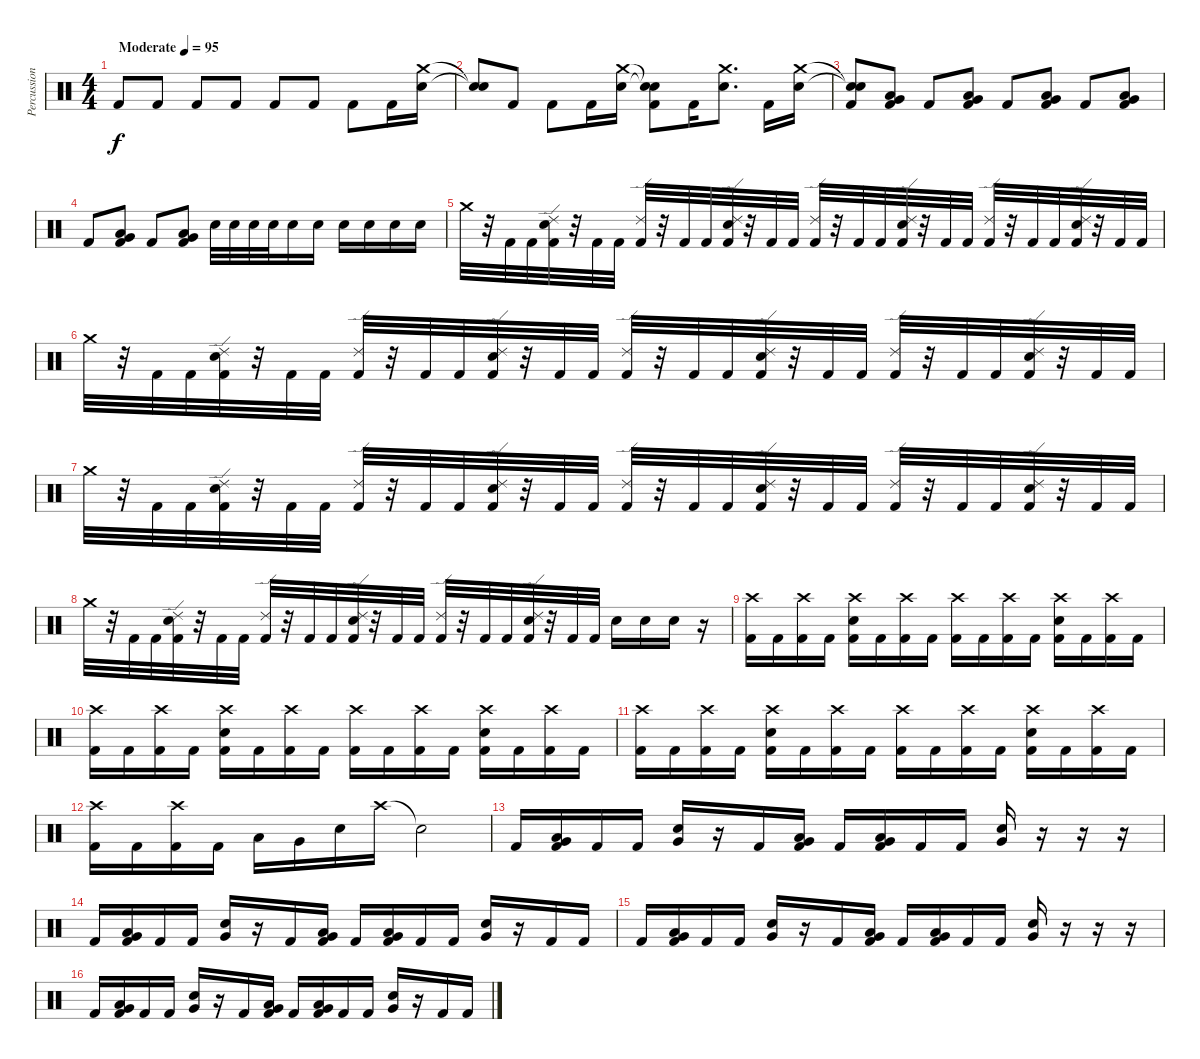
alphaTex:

\track ("Percussion" "Percussion") {instrument percussion}
\staff {score}
\articulation defaults
\ts (4 4)
\tempo (95 "Moderate")
\clef neutral
\ks c "Kick (hit) 2".8{dy f} "Kick (hit) 2".8 "Kick (hit) 2".8 "Kick (hit) 2".8 "Kick (hit) 2".8 "Kick (hit) 2".8 "Kick (hit) 2".8 "Kick (hit) 2".16
("Crash medium (hit)" "Electric Snare (hit)").16 |
("Snare (hit)"{t} "Snare (hit)"{t}).8 "Kick (hit) 2".8 "Kick (hit) 2".8 "Kick (hit) 2".16 ("Crash medium (hit)" "Electric Snare (hit)").16 ("Snare (hit)"{t} "Snare (hit)"{t} "Kick (hit) 2").8 "Kick (hit) 2".16 ("Crash medium (hit)" "Electric Snare (hit)").8{d} "Kick (hit) 2".16 ("Crash medium (hit)" "Electric Snare (hit)").16 |
("Snare (hit)"{t} "Snare (hit)"{t} "Kick (hit) 2").8 ("Low Floor Tom (hit)" "Very Low Tom (hit)" "Kick (hit) 2").8 "Kick (hit) 2".8 ("Low Floor Tom (hit)" "Very Low Tom (hit)" "Kick (hit) 2").8 "Kick (hit) 2".8 ("Low Floor Tom (hit)" "Very Low Tom (hit)" "Kick (hit) 2").8 "Kick (hit) 2".8 ("Low Floor Tom (hit)" "Very Low Tom (hit)" "Kick (hit) 2").8 |
"Kick (hit) 2".8 ("Low Floor Tom (hit)" "Very Low Tom (hit)" "Kick (hit) 2").8 "Kick (hit) 2".8 ("Low Floor Tom (hit)" "Very Low Tom (hit)" "Kick (hit) 2").8 "Electric Snare (hit)".32 "Electric Snare (hit)".32 "Electric Snare (hit)".32 "Electric Snare (hit)".32 "Electric Snare (hit)".16 "Electric Snare (hit)".16 "Electric Snare (hit)".16 "Electric Snare (hit)".16 "Electric Snare (hit)".16 "Electric Snare (hit)".16 |
"Crash medium (hit)".32 r.32 "Kick (hit) 2".32 "Kick (hit) 2".32 ("Ride (edge) 2" "Electric Snare (hit)" "Kick (hit) 2").32 r.32 "Kick (hit) 2".32 "Kick (hit) 2".32 ("Ride (edge) 2" "Kick (hit) 2").32 r.32 "Kick (hit) 2".32 "Kick (hit) 2".32 ("Ride (edge) 2" "Electric Snare (hit)" "Kick (hit) 2").32 r.32 "Kick (hit) 2".32 "Kick (hit) 2".32 ("Ride (edge) 2" "Kick (hit) 2").32 r.32 "Kick (hit) 2".32 "Kick (hit) 2".32 ("Ride (edge) 2" "Electric Snare (hit)" "Kick (hit) 2").32 r.32 "Kick (hit) 2".32 "Kick (hit) 2".32 ("Ride (edge) 2" "Kick (hit) 2").32 r.32 "Kick (hit) 2".32 "Kick (hit) 2".32 ("Ride (edge) 2" "Electric Snare (hit)" "Kick (hit) 2").32 r.32 "Kick (hit) 2".32 "Kick (hit) 2".32 |
"Crash medium (hit)".32 r.32 "Kick (hit) 2".32 "Kick (hit) 2".32 ("Ride (edge) 2" "Electric Snare (hit)" "Kick (hit) 2").32 r.32 "Kick (hit) 2".32 "Kick (hit) 2".32 ("Ride (edge) 2" "Kick (hit) 2").32 r.32 "Kick (hit) 2".32 "Kick (hit) 2".32 ("Ride (edge) 2" "Electric Snare (hit)" "Kick (hit) 2").32 r.32 "Kick (hit) 2".32 "Kick (hit) 2".32 ("Ride (edge) 2" "Kick (hit) 2").32 r.32 "Kick (hit) 2".32 "Kick (hit) 2".32 ("Ride (edge) 2" "Electric Snare (hit)" "Kick (hit) 2").32 r.32 "Kick (hit) 2".32 "Kick (hit) 2".32 ("Ride (edge) 2" "Kick (hit) 2").32 r.32 "Kick (hit) 2".32 "Kick (hit) 2".32 ("Ride (edge) 2" "Electric Snare (hit)" "Kick (hit) 2").32 r.32 "Kick (hit) 2".32 "Kick (hit) 2".32 |
"Crash medium (hit)".32 r.32 "Kick (hit) 2".32 "Kick (hit) 2".32 ("Ride (edge) 2" "Electric Snare (hit)" "Kick (hit) 2").32 r.32 "Kick (hit) 2".32 "Kick (hit) 2".32 ("Ride (edge) 2" "Kick (hit) 2").32 r.32 "Kick (hit) 2".32 "Kick (hit) 2".32 ("Ride (edge) 2" "Electric Snare (hit)" "Kick (hit) 2").32 r.32 "Kick (hit) 2".32 "Kick (hit) 2".32 ("Ride (edge) 2" "Kick (hit) 2").32 r.32 "Kick (hit) 2".32 "Kick (hit) 2".32 ("Ride (edge) 2" "Electric Snare (hit)" "Kick (hit) 2").32 r.32 "Kick (hit) 2".32 "Kick (hit) 2".32 ("Ride (edge) 2" "Kick (hit) 2").32 r.32 "Kick (hit) 2".32 "Kick (hit) 2".32 ("Ride (edge) 2" "Electric Snare (hit)" "Kick (hit) 2").32 r.32 "Kick (hit) 2".32 "Kick (hit) 2".32 |
"Crash medium (hit)".32 r.32 "Kick (hit) 2".32 "Kick (hit) 2".32 ("Ride (edge) 2" "Electric Snare (hit)" "Kick (hit) 2").32 r.32 "Kick (hit) 2".32 "Kick (hit) 2".32 ("Ride (edge) 2" "Kick (hit) 2").32 r.32 "Kick (hit) 2".32 "Kick (hit) 2".32 ("Ride (edge) 2" "Electric Snare (hit)" "Kick (hit) 2").32 r.32 "Kick (hit) 2".32 "Kick (hit) 2".32 ("Ride (edge) 2" "Kick (hit) 2").32 r.32 "Kick (hit) 2".32 "Kick (hit) 2".32 ("Ride (edge) 2" "Electric Snare (hit)" "Kick (hit) 2").32 r.32 "Kick (hit) 2".32 "Kick (hit) 2".32 "Electric Snare (hit)".16 "Electric Snare (hit)".16 "Electric Snare (hit)".16 r.16 |
("Crash high (hit)" "Kick (hit) 2").16 "Kick (hit) 2".16 ("Crash high (hit)" "Kick (hit) 2").16 "Kick (hit) 2".16 ("Crash high (hit)" "Electric Snare (hit)" "Kick (hit) 2").16 "Kick (hit) 2".16 ("Crash high (hit)" "Kick (hit) 2").16 "Kick (hit) 2".16 ("Crash high (hit)" "Kick (hit) 2").16 "Kick (hit) 2".16 ("Crash high (hit)" "Kick (hit) 2").16 "Kick (hit) 2".16 ("Crash high (hit)" "Electric Snare (hit)" "Kick (hit) 2").16 "Kick (hit) 2".16 ("Crash high (hit)" "Kick (hit) 2").16 "Kick (hit) 2".16 |
("Crash high (hit)" "Kick (hit) 2").16 "Kick (hit) 2".16 ("Crash high (hit)" "Kick (hit) 2").16 "Kick (hit) 2".16 ("Crash high (hit)" "Electric Snare (hit)" "Kick (hit) 2").16 "Kick (hit) 2".16 ("Crash high (hit)" "Kick (hit) 2").16 "Kick (hit) 2".16 ("Crash high (hit)" "Kick (hit) 2").16 "Kick (hit) 2".16 ("Crash high (hit)" "Kick (hit) 2").16 "Kick (hit) 2".16 ("Crash high (hit)" "Electric Snare (hit)" "Kick (hit) 2").16 "Kick (hit) 2".16 ("Crash high (hit)" "Kick (hit) 2").16 "Kick (hit) 2".16 |
("Crash high (hit)" "Kick (hit) 2").16 "Kick (hit) 2".16 ("Crash high (hit)" "Kick (hit) 2").16 "Kick (hit) 2".16 ("Crash high (hit)" "Electric Snare (hit)" "Kick (hit) 2").16 "Kick (hit) 2".16 ("Crash high (hit)" "Kick (hit) 2").16 "Kick (hit) 2".16 ("Crash high (hit)" "Kick (hit) 2").16 "Kick (hit) 2".16 ("Crash high (hit)" "Kick (hit) 2").16 "Kick (hit) 2".16 ("Crash high (hit)" "Electric Snare (hit)" "Kick (hit) 2").16 "Kick (hit) 2".16 ("Crash high (hit)" "Kick (hit) 2").16 "Kick (hit) 2".16 |
("Crash high (hit)" "Kick (hit) 2").16 "Kick (hit) 2".16 ("Crash high (hit)" "Kick (hit) 2").16 "Kick (hit) 2".16 "Low Tom (hit)".16 "Very Low Tom (hit)".16 "Electric Snare (hit)".16 "Crash high (hit)".16 "Snare (hit)"{t}.2 |
"Kick (hit) 2".16 ("Low Tom (hit)" "Very Low Tom (hit)" "Kick (hit) 2").16 "Kick (hit) 2".16 "Kick (hit) 2".16 ("Electric Snare (hit)" "Very Low Tom (hit)").16 r.16 "Kick (hit) 2".16 ("Low Tom (hit)" "Very Low Tom (hit)" "Kick (hit) 2").16 "Kick (hit) 2".16 ("Very Low Tom (hit)" "Low Floor Tom (hit)" "Kick (hit) 2").16 "Kick (hit) 2".16 "Kick (hit) 2".16 ("Electric Snare (hit)" "Very Low Tom (hit)").16 r.16 r.16 r.16 |
"Kick (hit) 2".16 ("Low Tom (hit)" "Very Low Tom (hit)" "Kick (hit) 2").16 "Kick (hit) 2".16 "Kick (hit) 2".16 ("Electric Snare (hit)" "Very Low Tom (hit)").16 r.16 "Kick (hit) 2".16 ("Low Tom (hit)" "Very Low Tom (hit)" "Kick (hit) 2").16 "Kick (hit) 2".16 ("Very Low Tom (hit)" "Low Floor Tom (hit)" "Kick (hit) 2").16 "Kick (hit) 2".16 "Kick (hit) 2".16 ("Electric Snare (hit)" "Very Low Tom (hit)").16 r.16 "Kick (hit) 2".16 "Kick (hit) 2".16 |
"Kick (hit) 2".16 ("Low Tom (hit)" "Very Low Tom (hit)" "Kick (hit) 2").16 "Kick (hit) 2".16 "Kick (hit) 2".16 ("Electric Snare (hit)" "Very Low Tom (hit)").16 r.16 "Kick (hit) 2".16 ("Low Tom (hit)" "Very Low Tom (hit)" "Kick (hit) 2").16 "Kick (hit) 2".16 ("Very Low Tom (hit)" "Low Floor Tom (hit)" "Kick (hit) 2").16 "Kick (hit) 2".16 "Kick (hit) 2".16 ("Electric Snare (hit)" "Very Low Tom (hit)").16 r.16 r.16 r.16 |
"Kick (hit) 2".16 ("Low Tom (hit)" "Very Low Tom (hit)" "Kick (hit) 2").16 "Kick (hit) 2".16 "Kick (hit) 2".16 ("Electric Snare (hit)" "Very Low Tom (hit)").16 r.16 "Kick (hit) 2".16 ("Low Tom (hit)" "Very Low Tom (hit)" "Kick (hit) 2").16 "Kick (hit) 2".16 ("Very Low Tom (hit)" "Low Floor Tom (hit)" "Kick (hit) 2").16 "Kick (hit) 2".16 "Kick (hit) 2".16 ("Electric Snare (hit)" "Very Low Tom (hit)").16 r.16 "Kick (hit) 2".16 "Kick (hit) 2".16
